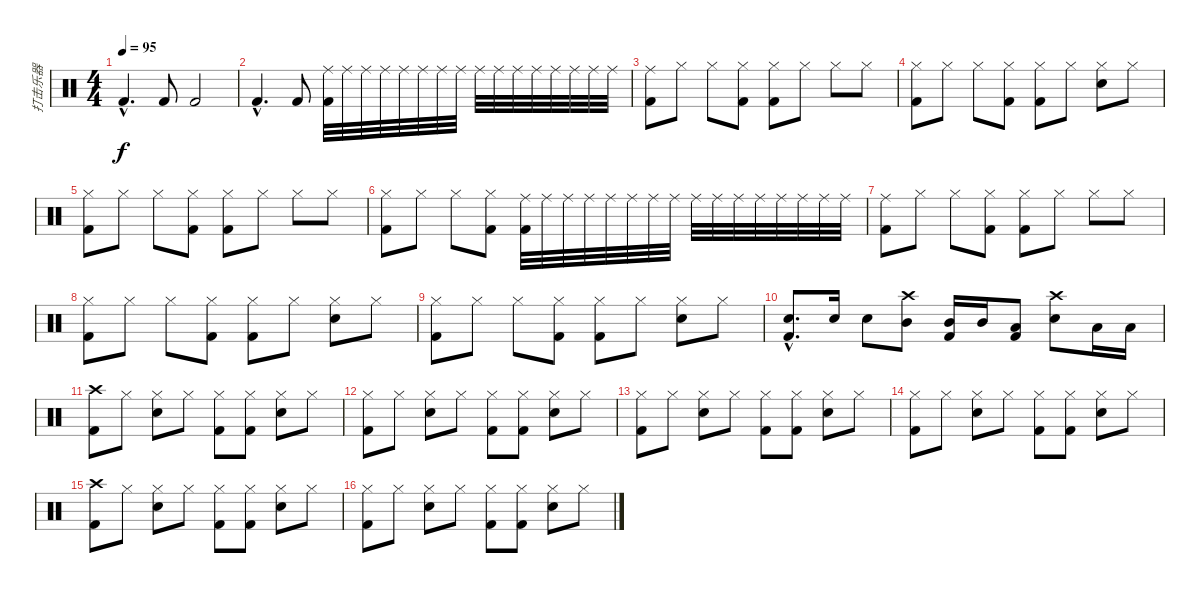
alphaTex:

\track ("打击乐器" "打击乐器") {instrument percussion}
\staff {score}
\articulation defaults
\ts (4 4)
\tempo 95
\clef neutral
\ks c "Kick (hit) 2"{hac}.4{d dy f} "Kick (hit) 2".8 "Kick (hit) 2".2
|
"Kick (hit) 2"{hac}.4{d} "Kick (hit) 2".8 ("Ride (middle)" "Kick (hit) 2").32 "Ride (middle)".32 "Ride (middle)".32 "Ride (middle)".32 "Ride (middle)".32 "Ride (middle)".32 "Ride (middle)".32 "Ride (middle)".32 "Ride (middle)".32 "Ride (middle)".32 "Ride (middle)".32 "Ride (middle)".32 "Ride (middle)".32 "Ride (middle)".32 "Ride (middle)".32 "Ride (middle)".32 |
("Ride (middle)" "Kick (hit) 2").8 "Hi-Hat (closed)".8 "Hi-Hat (closed)".8 ("Hi-Hat (closed)" "Kick (hit) 2").8 ("Hi-Hat (closed)" "Kick (hit) 2").8 "Hi-Hat (closed)".8 "Hi-Hat (closed)".8 "Hi-Hat (closed)".8 |
("Hi-Hat (closed)" "Kick (hit) 2").8 "Hi-Hat (closed)".8 "Hi-Hat (closed)".8 ("Hi-Hat (closed)" "Kick (hit) 2").8 ("Hi-Hat (closed)" "Kick (hit) 2").8 "Hi-Hat (closed)".8 ("Hi-Hat (closed)" "Electric Snare (hit)").8 "Hi-Hat (closed)".8 |
("Hi-Hat (closed)" "Kick (hit) 2").8 "Hi-Hat (closed)".8 "Hi-Hat (closed)".8 ("Hi-Hat (closed)" "Kick (hit) 2").8 ("Hi-Hat (closed)" "Kick (hit) 2").8 "Hi-Hat (closed)".8 "Hi-Hat (closed)".8 "Hi-Hat (closed)".8 |
("Hi-Hat (closed)" "Kick (hit) 2").8 "Hi-Hat (closed)".8 "Hi-Hat (closed)".8 ("Hi-Hat (closed)" "Kick (hit) 2").8 ("Ride (middle)" "Kick (hit) 2").32 "Ride (middle)".32 "Ride (middle)".32 "Ride (middle)".32 "Ride (middle)".32 "Ride (middle)".32 "Ride (middle)".32 "Ride (middle)".32 "Ride (middle)".32 "Ride (middle)".32 "Ride (middle)".32 "Ride (middle)".32 "Ride (middle)".32 "Ride (middle)".32 "Ride (middle)".32 "Ride (middle)".32 |
("Ride (middle)" "Kick (hit) 2").8 "Hi-Hat (closed)".8 "Hi-Hat (closed)".8 ("Hi-Hat (closed)" "Kick (hit) 2").8 ("Hi-Hat (closed)" "Kick (hit) 2").8 "Hi-Hat (closed)".8 "Hi-Hat (closed)".8 "Hi-Hat (closed)".8 |
("Hi-Hat (closed)" "Kick (hit) 2").8 "Hi-Hat (closed)".8 "Hi-Hat (closed)".8 ("Hi-Hat (closed)" "Kick (hit) 2").8 ("Hi-Hat (closed)" "Kick (hit) 2").8 "Hi-Hat (closed)".8 ("Hi-Hat (closed)" "Electric Snare (hit)").8 "Hi-Hat (closed)".8 |
("Hi-Hat (closed)" "Kick (hit) 2").8 "Hi-Hat (closed)".8 "Hi-Hat (closed)".8 ("Hi-Hat (closed)" "Kick (hit) 2").8 ("Hi-Hat (closed)" "Kick (hit) 2").8 "Hi-Hat (closed)".8 ("Hi-Hat (closed)" "Electric Snare (hit)").8 "Hi-Hat (closed)".8 |
("Electric Snare (hit)"{hac} "Kick (hit) 2"{hac}).8{d} "Electric Snare (hit)".16 "Electric Snare (hit)".8 ("Crash high (hit)" "Mid Tom (hit)").8 ("Mid Tom (hit)" "Kick (hit) 2").16 "Mid Tom (hit)".16 ("Low Tom (hit)" "Kick (hit) 2").8 ("Crash high (hit)" "Electric Snare (hit)").8 "Low Tom (hit)".16 "Low Tom (hit)".16 |
("Crash high (hit)" "Kick (hit) 2").8 "Hi-Hat (closed)".8 ("Hi-Hat (closed)" "Electric Snare (hit)").8 "Hi-Hat (closed)".8 ("Hi-Hat (closed)" "Kick (hit) 2").8 ("Hi-Hat (closed)" "Kick (hit) 2").8 ("Hi-Hat (closed)" "Electric Snare (hit)").8 "Hi-Hat (closed)".8 |
("Hi-Hat (closed)" "Kick (hit) 2").8 "Hi-Hat (closed)".8 ("Hi-Hat (closed)" "Electric Snare (hit)").8 "Hi-Hat (closed)".8 ("Hi-Hat (closed)" "Kick (hit) 2").8 ("Hi-Hat (closed)" "Kick (hit) 2").8 ("Hi-Hat (closed)" "Electric Snare (hit)").8 "Hi-Hat (closed)".8 |
("Hi-Hat (closed)" "Kick (hit) 2").8 "Hi-Hat (closed)".8 ("Hi-Hat (closed)" "Electric Snare (hit)").8 "Hi-Hat (closed)".8 ("Hi-Hat (closed)" "Kick (hit) 2").8 ("Hi-Hat (closed)" "Kick (hit) 2").8 ("Hi-Hat (closed)" "Electric Snare (hit)").8 "Hi-Hat (closed)".8 |
("Hi-Hat (closed)" "Kick (hit) 2").8 "Hi-Hat (closed)".8 ("Hi-Hat (closed)" "Electric Snare (hit)").8 "Hi-Hat (closed)".8 ("Hi-Hat (closed)" "Kick (hit) 2").8 ("Hi-Hat (closed)" "Kick (hit) 2").8 ("Hi-Hat (closed)" "Electric Snare (hit)").8 "Hi-Hat (closed)".8 |
("Crash high (hit)" "Kick (hit) 2").8 "Hi-Hat (closed)".8 ("Hi-Hat (closed)" "Electric Snare (hit)").8 "Hi-Hat (closed)".8 ("Hi-Hat (closed)" "Kick (hit) 2").8 ("Hi-Hat (closed)" "Kick (hit) 2").8 ("Hi-Hat (closed)" "Electric Snare (hit)").8 "Hi-Hat (closed)".8 |
("Hi-Hat (closed)" "Kick (hit) 2").8 "Hi-Hat (closed)".8 ("Hi-Hat (closed)" "Electric Snare (hit)").8 "Hi-Hat (closed)".8 ("Hi-Hat (closed)" "Kick (hit) 2").8 ("Hi-Hat (closed)" "Kick (hit) 2").8 ("Hi-Hat (closed)" "Electric Snare (hit)").8 "Hi-Hat (closed)".8
